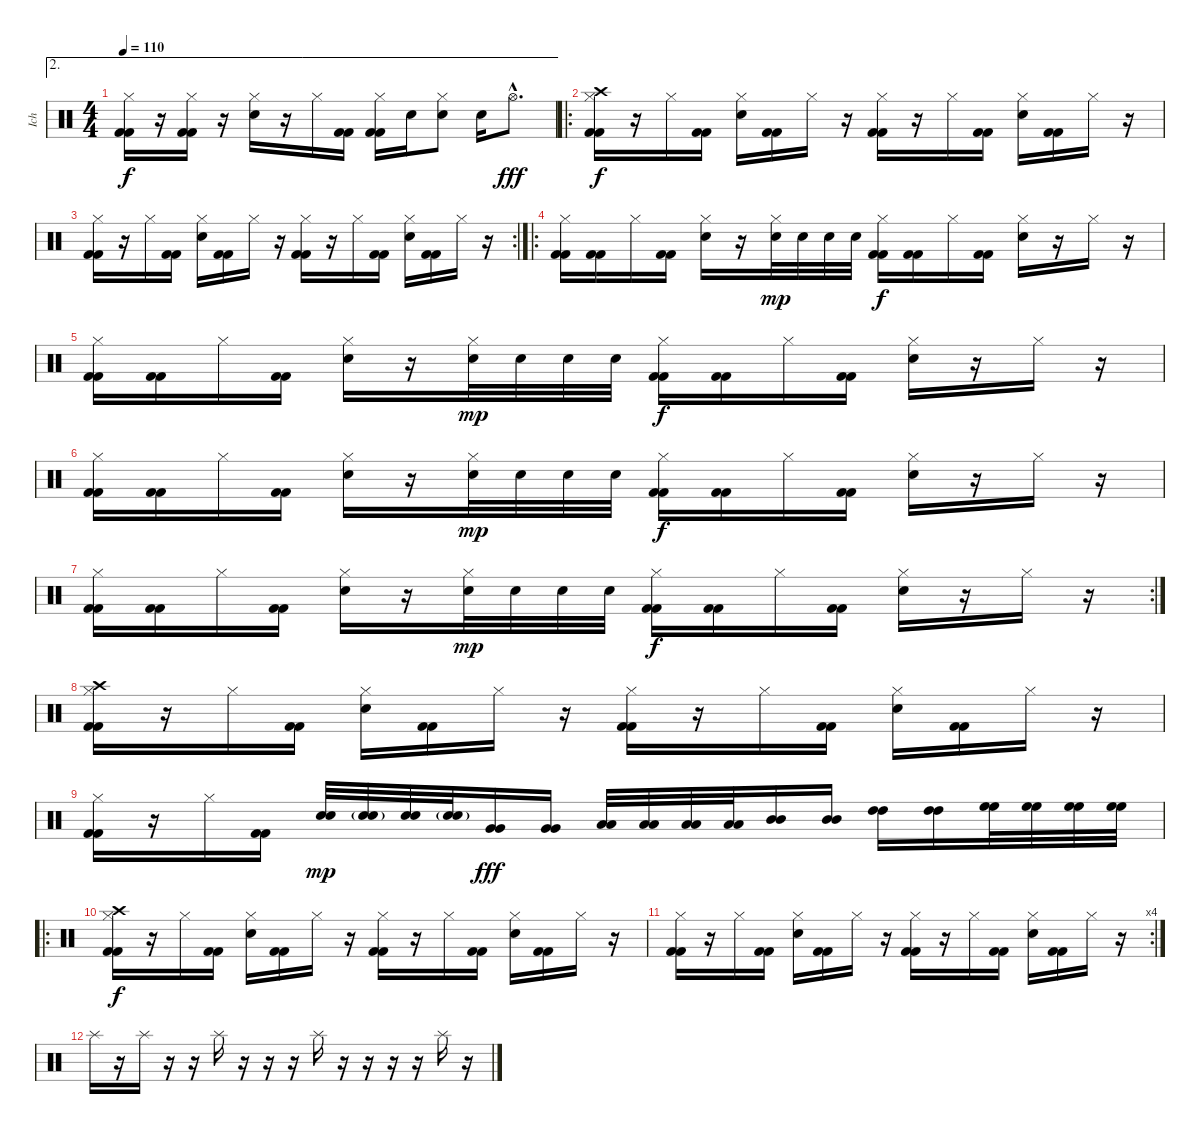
\track ("Ich" "Ich") {instrument percussion}
\staff {score}
\articulation defaults
\ae 2
\ts (4 4)
\tempo 110
\clef neutral
\ks c
("Hi-Hat (closed)" "Kick (hit) 2" "Kick (hit) 2").16{dy f} r.16 ("Hi-Hat (closed)" "Kick (hit) 2" "Kick (hit) 2").16 r.16 ("Hi-Hat (closed)" "Snare (hit) 2").16 r.16 "Hi-Hat (closed)".16 ("Kick (hit) 2" "Kick (hit) 2").16 ("Hi-Hat (closed)" "Kick (hit) 2" "Kick (hit) 2").16 "Snare (hit) 2".16 ("Hi-Hat (closed)" "Snare (hit) 2").8 "Snare (hit) 2".16 "Hi-Hat (open)"{hac}.8{d dy fff} |
\ro
("Hi-Hat (closed)" "Crash high (hit)" "Kick (hit) 2" "Kick (hit) 2").16{dy f} r.16 "Hi-Hat (closed)".16 ("Kick (hit) 2" "Kick (hit) 2").16 ("Hi-Hat (closed)" "Snare (hit) 2").16 ("Kick (hit) 2" "Kick (hit) 2").16 "Hi-Hat (closed)".16 r.16 ("Hi-Hat (closed)" "Kick (hit) 2" "Kick (hit) 2").16 r.16 "Hi-Hat (closed)".16 ("Kick (hit) 2" "Kick (hit) 2").16 ("Hi-Hat (closed)" "Snare (hit) 2").16 ("Kick (hit) 2" "Kick (hit) 2").16 "Hi-Hat (closed)".16 r.16 |
\rc 2
("Hi-Hat (closed)" "Kick (hit) 2" "Kick (hit) 2").16 r.16 "Hi-Hat (closed)".16 ("Kick (hit) 2" "Kick (hit) 2").16 ("Hi-Hat (closed)" "Snare (hit) 2").16 ("Kick (hit) 2" "Kick (hit) 2").16 "Hi-Hat (closed)".16 r.16 ("Hi-Hat (closed)" "Kick (hit) 2" "Kick (hit) 2").16 r.16 "Hi-Hat (closed)".16 ("Kick (hit) 2" "Kick (hit) 2").16 ("Hi-Hat (closed)" "Snare (hit) 2").16 ("Kick (hit) 2" "Kick (hit) 2").16 "Hi-Hat (closed)".16 r.16 |
\ro
("Hi-Hat (closed)" "Kick (hit) 2" "Kick (hit) 2").16 ("Kick (hit) 2" "Kick (hit) 2").16 "Hi-Hat (closed)".16 ("Kick (hit) 2" "Kick (hit) 2").16 ("Hi-Hat (closed)" "Snare (hit) 2").16 r.16 ("Hi-Hat (closed)" "Snare (hit) 2").32{dy mp} "Snare (hit) 2".32 "Snare (hit) 2".32 "Snare (hit) 2".32 ("Hi-Hat (closed)" "Kick (hit) 2" "Kick (hit) 2").16{dy f} ("Kick (hit) 2" "Kick (hit) 2").16 "Hi-Hat (closed)".16 ("Kick (hit) 2" "Kick (hit) 2").16 ("Hi-Hat (closed)" "Snare (hit) 2").16 r.16 "Hi-Hat (closed)".16 r.16 |
("Hi-Hat (closed)" "Kick (hit) 2" "Kick (hit) 2").16 ("Kick (hit) 2" "Kick (hit) 2").16 "Hi-Hat (closed)".16 ("Kick (hit) 2" "Kick (hit) 2").16 ("Hi-Hat (closed)" "Snare (hit) 2").16 r.16 ("Hi-Hat (closed)" "Snare (hit) 2").32{dy mp} "Snare (hit) 2".32 "Snare (hit) 2".32 "Snare (hit) 2".32 ("Hi-Hat (closed)" "Kick (hit) 2" "Kick (hit) 2").16{dy f} ("Kick (hit) 2" "Kick (hit) 2").16 "Hi-Hat (closed)".16 ("Kick (hit) 2" "Kick (hit) 2").16 ("Hi-Hat (closed)" "Snare (hit) 2").16 r.16 "Hi-Hat (closed)".16 r.16 |
("Hi-Hat (closed)" "Kick (hit) 2" "Kick (hit) 2").16 ("Kick (hit) 2" "Kick (hit) 2").16 "Hi-Hat (closed)".16 ("Kick (hit) 2" "Kick (hit) 2").16 ("Hi-Hat (closed)" "Snare (hit) 2").16 r.16 ("Hi-Hat (closed)" "Snare (hit) 2").32{dy mp} "Snare (hit) 2".32 "Snare (hit) 2".32 "Snare (hit) 2".32 ("Hi-Hat (closed)" "Kick (hit) 2" "Kick (hit) 2").16{dy f} ("Kick (hit) 2" "Kick (hit) 2").16 "Hi-Hat (closed)".16 ("Kick (hit) 2" "Kick (hit) 2").16 ("Hi-Hat (closed)" "Snare (hit) 2").16 r.16 "Hi-Hat (closed)".16 r.16 |
\rc 2
("Hi-Hat (closed)" "Kick (hit) 2" "Kick (hit) 2").16 ("Kick (hit) 2" "Kick (hit) 2").16 "Hi-Hat (closed)".16 ("Kick (hit) 2" "Kick (hit) 2").16 ("Hi-Hat (closed)" "Snare (hit) 2").16 r.16 ("Hi-Hat (closed)" "Snare (hit) 2").32{dy mp} "Snare (hit) 2".32 "Snare (hit) 2".32 "Snare (hit) 2".32 ("Hi-Hat (closed)" "Kick (hit) 2" "Kick (hit) 2").16{dy f} ("Kick (hit) 2" "Kick (hit) 2").16 "Hi-Hat (closed)".16 ("Kick (hit) 2" "Kick (hit) 2").16 ("Hi-Hat (closed)" "Snare (hit) 2").16 r.16 "Hi-Hat (closed)".16 r.16 |
("Hi-Hat (closed)" "Crash high (hit)" "Kick (hit) 2" "Kick (hit) 2").16 r.16 "Hi-Hat (closed)".16 ("Kick (hit) 2" "Kick (hit) 2").16 ("Hi-Hat (closed)" "Snare (hit) 2").16 ("Kick (hit) 2" "Kick (hit) 2").16 "Hi-Hat (closed)".16 r.16 ("Hi-Hat (closed)" "Kick (hit) 2" "Kick (hit) 2").16 r.16 "Hi-Hat (closed)".16 ("Kick (hit) 2" "Kick (hit) 2").16 ("Hi-Hat (closed)" "Snare (hit) 2").16 ("Kick (hit) 2" "Kick (hit) 2").16 "Hi-Hat (closed)".16 r.16 |
("Hi-Hat (closed)" "Kick (hit) 2" "Kick (hit) 2").16 r.16 "Hi-Hat (closed)".16 ("Kick (hit) 2" "Kick (hit) 2").16 ("Electric Snare (hit)" "Electric Snare (hit)").32{dy mp} ("Electric Snare (hit)" "Electric Snare (hit)"{g}).32 ("Electric Snare (hit)" "Electric Snare (hit)").32 ("Electric Snare (hit)" "Electric Snare (hit)"{g}).32 ("Very Low Tom (hit)" "Very Low Tom (hit)").16{dy fff} ("Very Low Tom (hit)" "Very Low Tom (hit)").16 ("Low Tom (hit)" "Low Tom (hit)").32 ("Low Tom (hit)" "Low Tom (hit)").32 ("Low Tom (hit)" "Low Tom (hit)").32 ("Low Tom (hit)" "Low Tom (hit)").32 ("Mid Tom (hit)" "Mid Tom (hit)").16 ("Mid Tom (hit)" "Mid Tom (hit)").16 ("High Tom (hit)" "High Tom (hit)").16 ("High Tom (hit)" "High Tom (hit)").16 ("High Floor Tom (hit)" "High Floor Tom (hit)").32 ("High Floor Tom (hit)" "High Floor Tom (hit)").32 ("High Floor Tom (hit)" "High Floor Tom (hit)").32 ("High Floor Tom (hit)" "High Floor Tom (hit)").32 |
\ro
("Hi-Hat (closed)" "Crash high (hit)" "Kick (hit) 2" "Kick (hit) 2").16{dy f} r.16 "Hi-Hat (closed)".16 ("Kick (hit) 2" "Kick (hit) 2").16 ("Hi-Hat (closed)" "Snare (hit) 2").16 ("Kick (hit) 2" "Kick (hit) 2").16 "Hi-Hat (closed)".16 r.16 ("Hi-Hat (closed)" "Kick (hit) 2" "Kick (hit) 2").16 r.16 "Hi-Hat (closed)".16 ("Kick (hit) 2" "Kick (hit) 2").16 ("Hi-Hat (closed)" "Snare (hit) 2").16 ("Kick (hit) 2" "Kick (hit) 2").16 "Hi-Hat (closed)".16 r.16 |
\rc 4
("Hi-Hat (closed)" "Kick (hit) 2" "Kick (hit) 2").16 r.16 "Hi-Hat (closed)".16 ("Kick (hit) 2" "Kick (hit) 2").16 ("Hi-Hat (closed)" "Snare (hit) 2").16 ("Kick (hit) 2" "Kick (hit) 2").16 "Hi-Hat (closed)".16 r.16 ("Hi-Hat (closed)" "Kick (hit) 2" "Kick (hit) 2").16 r.16 "Hi-Hat (closed)".16 ("Kick (hit) 2" "Kick (hit) 2").16 ("Hi-Hat (closed)" "Snare (hit) 2").16 ("Kick (hit) 2" "Kick (hit) 2").16 "Hi-Hat (closed)".16 r.16 |
"Splash (hit)".16 r.16 "Splash (hit)".16 r.16 r.16 "Splash (hit)".16 r.16 r.16 r.16 "Splash (hit)".16 r.16 r.16 r.16 r.16 "Splash (hit)".16 r.16
